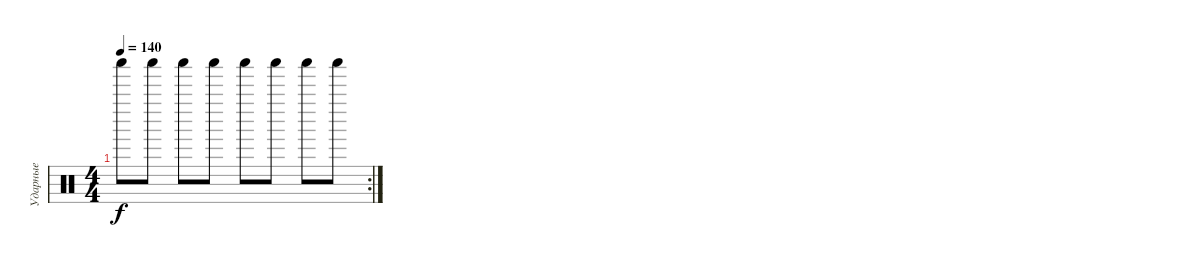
\track ("Ударные" "Ударные") {instrument percussion}
\staff {score}
\articulation defaults
\rc 2
\ts (4 4)
\tempo 140
\clef neutral
\ks c "Shaker (hit)".8{dy f} "Shaker (hit)".8 "Shaker (hit)".8 "Shaker (hit)".8 "Shaker (hit)".8 "Shaker (hit)".8 "Shaker (hit)".8 "Shaker (hit)".8
